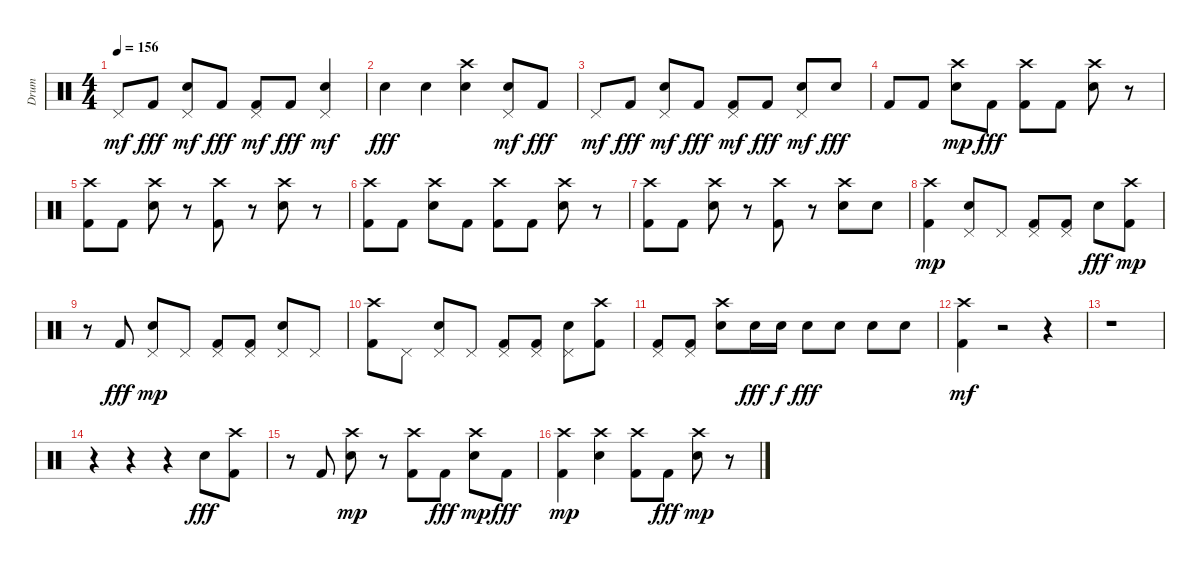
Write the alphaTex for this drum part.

\track ("Drum" "Drum") {instrument percussion}
\staff {score}
\articulation defaults
\ts (4 4)
\tempo 156
\clef neutral
\ks c "Pedal Hi-Hat (hit)".8{dy mf} "Kick (hit) 2".8{dy fff}
("Electric Snare (hit)" "Pedal Hi-Hat (hit)").8{dy mf} "Kick (hit) 2".8{dy fff} ("Kick (hit) 2" "Pedal Hi-Hat (hit)").8{dy mf} "Kick (hit) 2".8{dy fff} ("Electric Snare (hit)" "Pedal Hi-Hat (hit)").4{dy mf} |
"Electric Snare (hit)".4{dy fff} "Electric Snare (hit)".4 ("Electric Snare (hit)" "Crash high (hit)").4 ("Electric Snare (hit)" "Pedal Hi-Hat (hit)").8{dy mf} "Kick (hit) 2".8{dy fff} |
"Pedal Hi-Hat (hit)".8{dy mf} "Kick (hit) 2".8{dy fff} ("Electric Snare (hit)" "Pedal Hi-Hat (hit)").8{dy mf} "Kick (hit) 2".8{dy fff} ("Kick (hit) 2" "Pedal Hi-Hat (hit)").8{dy mf} "Kick (hit) 2".8{dy fff} ("Electric Snare (hit)" "Pedal Hi-Hat (hit)").8{dy mf} "Electric Snare (hit)"{tr (40 16)}.8{dy fff} |
"Kick (hit) 2".8 "Kick (hit) 2".8 ("Electric Snare (hit)" "Crash high (hit)").8{dy mp} "Kick (hit) 2".8{dy fff} ("Kick (hit) 2" "Crash high (hit)").8 "Kick (hit) 2".8 ("Electric Snare (hit)" "Crash high (hit)").8 r.8 |
("Kick (hit) 2" "Crash high (hit)").8 "Kick (hit) 2".8 ("Electric Snare (hit)" "Crash high (hit)").8 r.8 ("Kick (hit) 2" "Crash high (hit)").8 r.8 ("Electric Snare (hit)" "Crash high (hit)").8 r.8 |
("Kick (hit) 2" "Crash high (hit)").8 "Kick (hit) 2".8 ("Electric Snare (hit)" "Crash high (hit)").8 "Kick (hit) 2".8 ("Kick (hit) 2" "Crash high (hit)").8 "Kick (hit) 2".8 ("Electric Snare (hit)" "Crash high (hit)").8 r.8 |
("Kick (hit) 2" "Crash high (hit)").8 "Kick (hit) 2".8 ("Electric Snare (hit)" "Crash high (hit)").8 r.8 ("Kick (hit) 2" "Crash high (hit)").8 r.8 ("Electric Snare (hit)" "Crash high (hit)").8 "Electric Snare (hit)"{tr (40 16)}.8 |
("Kick (hit) 2" "Crash high (hit)").4{dy mp} ("Electric Snare (hit)" "Pedal Hi-Hat (hit)").8 "Pedal Hi-Hat (hit)".8 ("Kick (hit) 2" "Pedal Hi-Hat (hit)").8 ("Kick (hit) 2" "Pedal Hi-Hat (hit)").8 "Electric Snare (hit)".8{dy fff} ("Kick (hit) 2" "Crash high (hit)").8{dy mp} |
r.8 "Kick (hit) 2".8{dy fff} ("Electric Snare (hit)" "Pedal Hi-Hat (hit)").8{dy mp} "Pedal Hi-Hat (hit)".8 ("Kick (hit) 2" "Pedal Hi-Hat (hit)").8 ("Kick (hit) 2" "Pedal Hi-Hat (hit)").8 ("Electric Snare (hit)" "Pedal Hi-Hat (hit)").8 "Pedal Hi-Hat (hit)".8 |
("Kick (hit) 2" "Crash high (hit)").8 "Pedal Hi-Hat (hit)".8 ("Electric Snare (hit)" "Pedal Hi-Hat (hit)").8 "Pedal Hi-Hat (hit)".8 ("Kick (hit) 2" "Pedal Hi-Hat (hit)").8 ("Kick (hit) 2" "Pedal Hi-Hat (hit)").8 ("Electric Snare (hit)" "Pedal Hi-Hat (hit)").8 ("Kick (hit) 2" "Crash high (hit)").8 |
("Kick (hit) 2" "Pedal Hi-Hat (hit)").8 ("Kick (hit) 2" "Pedal Hi-Hat (hit)").8 ("Electric Snare (hit)" "Crash high (hit)").8 "Electric Snare (hit)".16{dy fff} "Electric Snare (hit)".16{dy f} "Electric Snare (hit)".8{dy fff} "Electric Snare (hit)".8 "Electric Snare (hit)".8 "Electric Snare (hit)".8 |
("Kick (hit) 2" "Crash high (hit)").4{dy mf} r.2 r.4 |
r.1 |
r.4 r.4 r.4 "Electric Snare (hit)".8{dy fff} ("Kick (hit) 2" "Crash high (hit)").8 |
r.8 "Kick (hit) 2".8 ("Electric Snare (hit)" "Crash high (hit)").8{dy mp} r.8 ("Kick (hit) 2" "Crash high (hit)").8 "Kick (hit) 2".8{dy fff} ("Electric Snare (hit)" "Crash high (hit)").8{dy mp} "Kick (hit) 2".8{dy fff} |
("Kick (hit) 2" "Crash high (hit)").4{dy mp} ("Electric Snare (hit)" "Crash high (hit)").4 ("Kick (hit) 2" "Crash high (hit)").8 "Kick (hit) 2".8{dy fff} ("Electric Snare (hit)" "Crash high (hit)").8{dy mp} r.8
